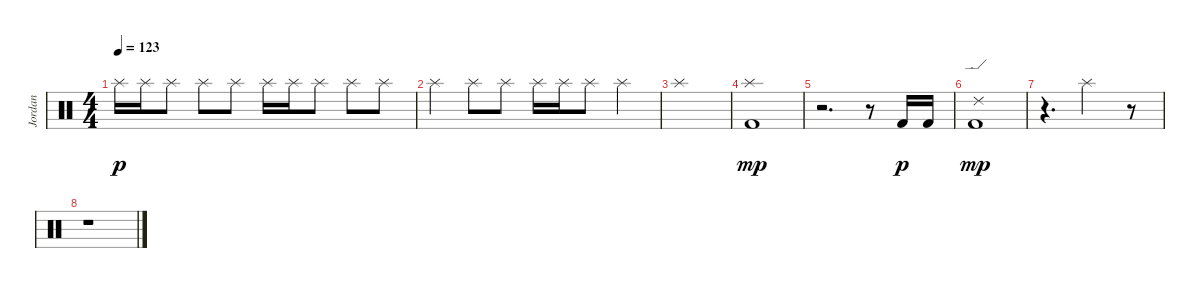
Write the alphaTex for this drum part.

\track ("Jordan" "Jordan") {instrument percussion}
\staff {score}
\articulation defaults
\ts (4 4)
\tempo 123
\clef neutral
\ks c "Splash (hit)".16{dy p balance 16} "Splash (hit)".16 "Splash (hit)".8 "Splash (hit)".8 "Splash (hit)".8 "Splash (hit)".16 "Splash (hit)".16 "Splash (hit)".8 "Splash (hit)".8 "Splash (hit)".8
|
"Splash (hit)".4 "Splash (hit)".8 "Splash (hit)".8 "Splash (hit)".16 "Splash (hit)".16 "Splash (hit)".8 "Splash (hit)".4 |
"Splash (hit)".1 |
("Splash (hit)" "Kick (hit) 2").1{dy mp balance 8} |
r.2{d} r.8 "Kick (hit) 2".16{dy p} "Kick (hit) 2".16 |
("Ride (edge) 2" "Kick (hit) 2").1{dy mp} |
r.4{d} "Splash (hit)".2 r.8 |
r.1
